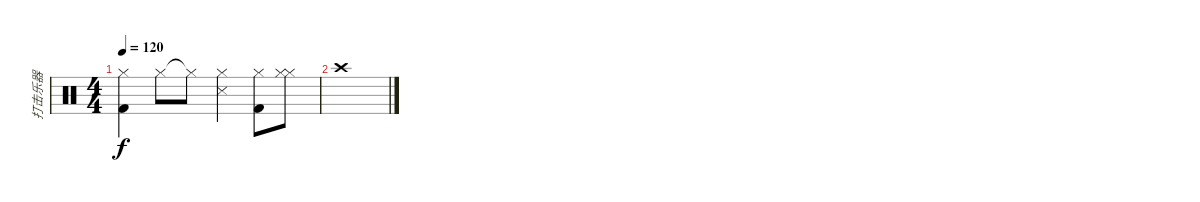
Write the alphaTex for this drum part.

\track ("打击乐器" "打击乐器") {instrument percussion}
\staff {score}
\articulation defaults
\ts (4 4)
\tempo 120
\clef neutral
\ks c
("Hi-Hat (closed)" "Kick (hit) 2").4{dy f} "Hi-Hat (closed)".8 "Hi-Hat (closed)"{t}.8 ("Snare (side stick) 3" "Hi-Hat (closed)").4 ("Hi-Hat (closed)" "Kick (hit) 2").8 ("Hi-Hat (closed)" "Hi-Hat (closed)").8 |
"Crash high (hit)".1
